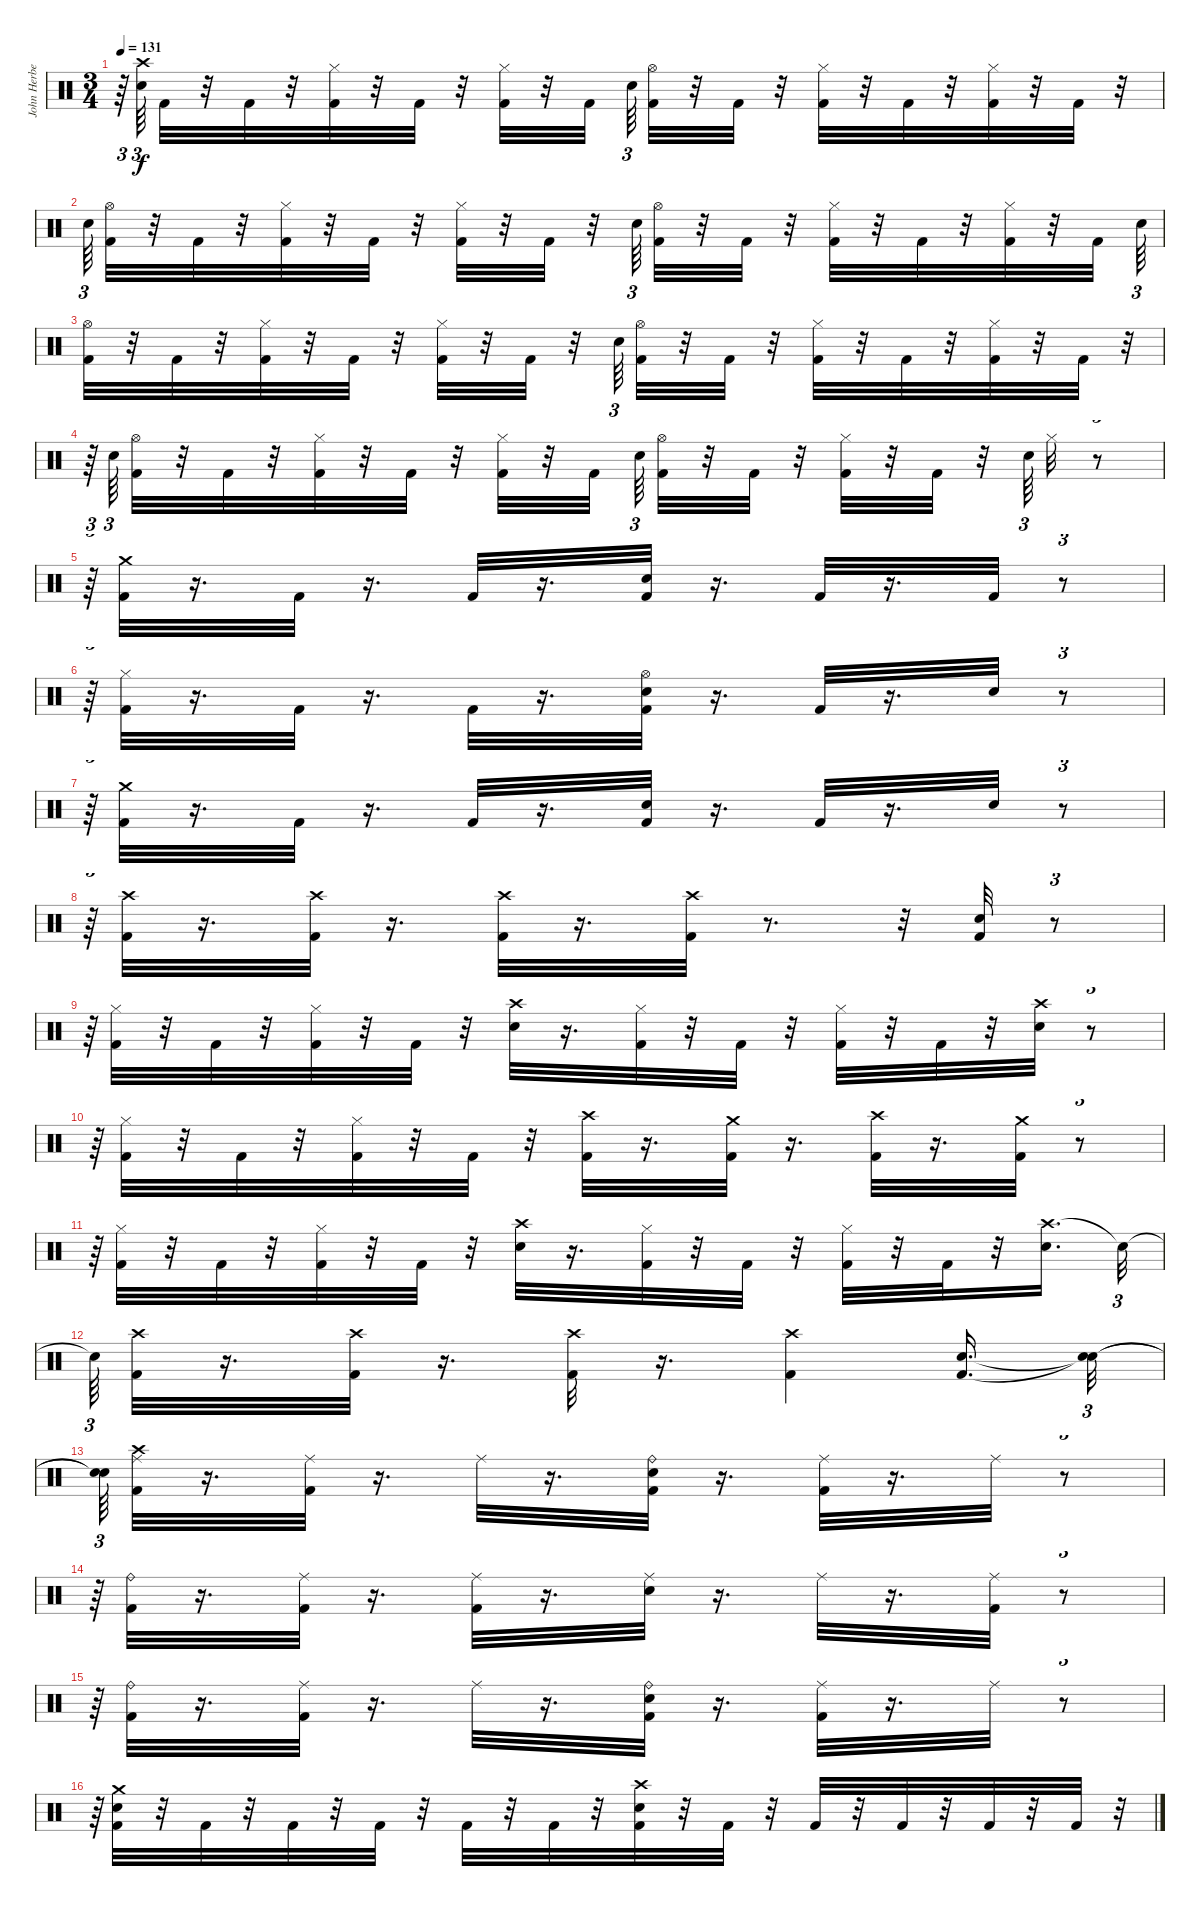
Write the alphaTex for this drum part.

\track ("John Herbert" "John Herbe") {instrument percussion}
\staff {score}
\articulation defaults
\ts (3 4)
\tempo 131
\clef neutral
\ks c
r.64{tu (3 2) dy f} ("Crash high (hit)" "Snare (hit) 2").64{tu (3 2)} "Kick (hit) 2".32 r.32 "Kick (hit) 2".32 r.32 ("Kick (hit) 2" "Hi-Hat (closed)").32 r.32 "Kick (hit) 2".32 r.32 ("Kick (hit) 2" "Hi-Hat (closed)").32 r.32 "Kick (hit) 2".32 "Snare (hit) 2".64{tu (3 2)} ("Kick (hit) 2" "Hi-Hat (open)").32 r.32 "Kick (hit) 2".32 r.32 ("Kick (hit) 2" "Hi-Hat (closed)").32 r.32 "Kick (hit) 2".32 r.32 ("Kick (hit) 2" "Hi-Hat (closed)").32 r.32 "Kick (hit) 2".32 r.32 |
"Snare (hit) 2".64{tu (3 2)} ("Kick (hit) 2" "Hi-Hat (open)").32 r.32 "Kick (hit) 2".32 r.32 ("Kick (hit) 2" "Hi-Hat (closed)").32 r.32 "Kick (hit) 2".32 r.32 ("Kick (hit) 2" "Hi-Hat (closed)").32 r.32 "Kick (hit) 2".32 r.32 "Snare (hit) 2".64{tu (3 2)} ("Kick (hit) 2" "Hi-Hat (open)").32 r.32 "Kick (hit) 2".32 r.32 ("Kick (hit) 2" "Hi-Hat (closed)").32 r.32 "Kick (hit) 2".32 r.32 ("Kick (hit) 2" "Hi-Hat (closed)").32 r.32 "Kick (hit) 2".32 "Snare (hit) 2".64{tu (3 2)} |
("Kick (hit) 2" "Hi-Hat (open)").32 r.32 "Kick (hit) 2".32 r.32 ("Kick (hit) 2" "Hi-Hat (closed)").32 r.32 "Kick (hit) 2".32 r.32 ("Kick (hit) 2" "Hi-Hat (closed)").32 r.32 "Kick (hit) 2".32 r.32 "Snare (hit) 2".64{tu (3 2)} ("Kick (hit) 2" "Hi-Hat (open)").32 r.32 "Kick (hit) 2".32 r.32 ("Kick (hit) 2" "Hi-Hat (closed)").32 r.32 "Kick (hit) 2".32 r.32 ("Kick (hit) 2" "Hi-Hat (closed)").32 r.32 "Kick (hit) 2".32 r.32{tu (3 2)} |
r.64{tu (3 2)} "Snare (hit) 2".64{tu (3 2)} ("Kick (hit) 2" "Hi-Hat (open)").32 r.32 "Kick (hit) 2".32 r.32 ("Kick (hit) 2" "Hi-Hat (closed)").32 r.32 "Kick (hit) 2".32 r.32 ("Kick (hit) 2" "Hi-Hat (closed)").32 r.32 "Kick (hit) 2".32 "Snare (hit) 2".64{tu (3 2)} ("Kick (hit) 2" "Hi-Hat (open)").32 r.32 "Kick (hit) 2".32 r.32 ("Kick (hit) 2" "Hi-Hat (closed)").32 r.32 "Kick (hit) 2".32 r.32 "Snare (hit) 2".64{tu (3 2)} "Hi-Hat (closed)".32 r.8{tu (3 2)} |
r.64{tu (3 2)} ("Crash medium (hit)" "Kick (hit) 2").32 r.16{d} "Kick (hit) 2".32 r.16{d} "Kick (hit) 2".32 r.16{d} ("Snare (hit) 2" "Kick (hit) 2").32 r.16{d} "Kick (hit) 2".32 r.16{d} "Kick (hit) 2".32 r.8{tu (3 2)} |
r.64{tu (3 2)} ("Hi-Hat (closed)" "Kick (hit) 2").32 r.16{d} "Kick (hit) 2".32 r.16{d} "Kick (hit) 2".32 r.16{d} ("Hi-Hat (open)" "Kick (hit) 2" "Snare (hit) 2").32 r.16{d} "Kick (hit) 2".32 r.16{d} "Snare (hit) 2".32 r.8{tu (3 2)} |
r.64{tu (3 2)} ("Crash medium (hit)" "Kick (hit) 2").32 r.16{d} "Kick (hit) 2".32 r.16{d} "Kick (hit) 2".32 r.16{d} ("Snare (hit) 2" "Kick (hit) 2").32 r.16{d} "Kick (hit) 2".32 r.16{d} "Snare (hit) 2".32 r.8{tu (3 2)} |
r.64{tu (3 2)} ("Kick (hit) 2" "Crash high (hit)").32 r.16{d} ("Kick (hit) 2" "Crash high (hit)").32 r.16{d} ("Kick (hit) 2" "Crash high (hit)").32 r.16{d} ("Kick (hit) 2" "Crash high (hit)").32 r.8{d} r.32 ("Snare (hit) 2" "Kick (hit) 2").32 r.8{tu (3 2)} |
r.64{tu (3 2)} ("Hi-Hat (closed)" "Kick (hit) 2").32 r.32 "Kick (hit) 2".32 r.32 ("Hi-Hat (closed)" "Kick (hit) 2").32 r.32 "Kick (hit) 2".32 r.32 ("Crash high (hit)" "Snare (hit) 2").32 r.16{d} ("Hi-Hat (closed)" "Kick (hit) 2").32 r.32 "Kick (hit) 2".32 r.32 ("Hi-Hat (closed)" "Kick (hit) 2").32 r.32 "Kick (hit) 2".32 r.32 ("Crash high (hit)" "Snare (hit) 2").32 r.8{tu (3 2)} |
r.64{tu (3 2)} ("Hi-Hat (closed)" "Kick (hit) 2").32 r.32 "Kick (hit) 2".32 r.32 ("Hi-Hat (closed)" "Kick (hit) 2").32 r.32 "Kick (hit) 2".32 r.32 ("Crash high (hit)" "Kick (hit) 2").32 r.16{d} ("Kick (hit) 2" "Crash medium (hit)").32 r.16{d} ("Crash high (hit)" "Kick (hit) 2").32 r.16{d} ("Kick (hit) 2" "Crash medium (hit)").32 r.8{tu (3 2)} |
r.64{tu (3 2)} ("Hi-Hat (closed)" "Kick (hit) 2").32 r.32 "Kick (hit) 2".32 r.32 ("Hi-Hat (closed)" "Kick (hit) 2").32 r.32 "Kick (hit) 2".32 r.32 ("Crash high (hit)" "Snare (hit) 2").32 r.16{d} ("Hi-Hat (closed)" "Kick (hit) 2").32 r.32 "Kick (hit) 2".32 r.32 ("Hi-Hat (closed)" "Kick (hit) 2").32 r.32 "Kick (hit) 2".32 r.32 ("Crash high (hit)" "Snare (hit) 2").16{d} "Snare (hit)"{t}.32{tu (3 2)} |
"Snare (hit)"{t}.64{tu (3 2)} ("Kick (hit) 2" "Crash high (hit)").32 r.16{d} ("Kick (hit) 2" "Crash high (hit)").32 r.16{d} ("Kick (hit) 2" "Crash high (hit)").32 r.16{d} ("Kick (hit) 2" "Crash high (hit)").4 ("Snare (hit) 2" "Kick (hit) 2").16{d} ("Snare (hit)"{t} "Snare (hit)"{t}).32{tu (3 2)} |
("Snare (hit)"{t} "Snare (hit)"{t}).64{tu (3 2)} ("Crash high (hit)" "Kick (hit) 2" "Ride (middle)").32 r.16{d} ("Kick (hit) 2" "Ride (middle)").32 r.16{d} "Ride (middle)".32 r.16{d} ("Kick (hit) 2" "Snare (hit) 2" "Ride (bell)").32 r.16{d} ("Kick (hit) 2" "Ride (middle)").32 r.16{d} "Ride (middle)".32 r.8{tu (3 2)} |
r.64{tu (3 2)} ("Kick (hit) 2" "Ride (bell)").32 r.16{d} ("Kick (hit) 2" "Ride (middle)").32 r.16{d} ("Kick (hit) 2" "Ride (middle)").32 r.16{d} ("Snare (hit) 2" "Ride (middle)").32 r.16{d} "Ride (middle)".32 r.16{d} ("Kick (hit) 2" "Ride (middle)").32 r.8{tu (3 2)} |
r.64{tu (3 2)} ("Kick (hit) 2" "Ride (bell)").32 r.16{d} ("Kick (hit) 2" "Ride (middle)").32 r.16{d} "Ride (middle)".32 r.16{d} ("Kick (hit) 2" "Snare (hit) 2" "Ride (bell)").32 r.16{d} ("Kick (hit) 2" "Ride (middle)").32 r.16{d} "Ride (middle)".32 r.8{tu (3 2)} |
r.64{tu (3 2)} ("Snare (hit) 2" "Kick (hit) 2" "Crash medium (hit)").32 r.32 "Kick (hit) 2".32 r.32 "Kick (hit) 2".32 r.32 "Kick (hit) 2".32 r.32 "Kick (hit) 2".32 r.32 "Kick (hit) 2".32 r.32 ("Crash high (hit)" "Snare (hit) 2" "Kick (hit) 2").32 r.32 "Kick (hit) 2".32 r.32 "Kick (hit) 2".32 r.32 "Kick (hit) 2".32 r.32 "Kick (hit) 2".32 r.32 "Kick (hit) 2".32 r.32{tu (3 2)}
